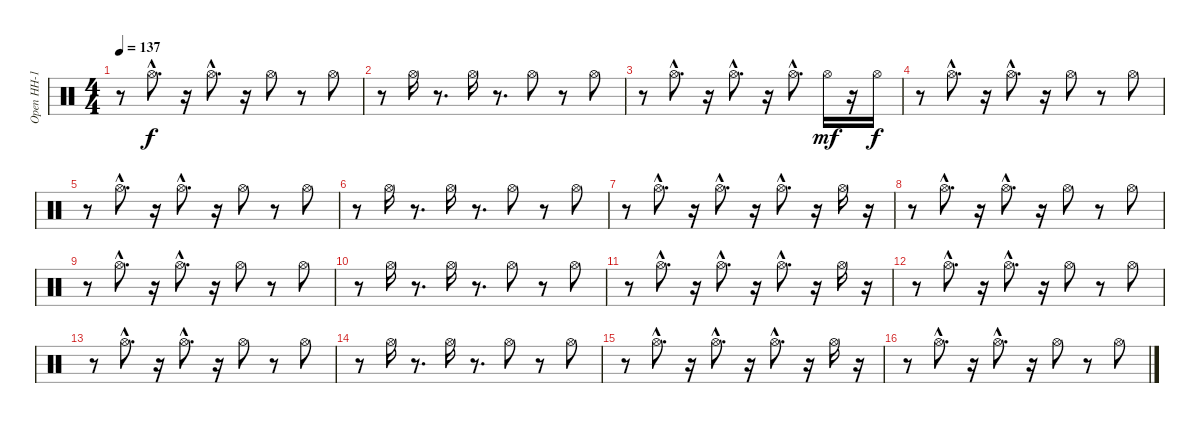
\track ("Open HH-1" "Open HH-1") {instrument percussion}
\staff {score}
\articulation defaults
\ts (4 4)
\tempo 137
\clef neutral
\ks c
r.8{dy f} "Hi-Hat (open)"{hac}.8{d} r.16 "Hi-Hat (open)"{hac}.8{d} r.16 "Hi-Hat (open)".8 r.8 "Hi-Hat (open)".8 |
r.8 "Hi-Hat (open)".16 r.8{d} "Hi-Hat (open)".16 r.8{d} "Hi-Hat (open)".8 r.8 "Hi-Hat (open)".8 |
r.8 "Hi-Hat (open)"{hac}.8{d} r.16 "Hi-Hat (open)"{hac}.8{d} r.16 "Hi-Hat (open)"{hac}.8{d} "Hi-Hat (open)".16{dy mf} r.16 "Hi-Hat (open)".16{dy f} |
r.8 "Hi-Hat (open)"{hac}.8{d} r.16 "Hi-Hat (open)"{hac}.8{d} r.16 "Hi-Hat (open)".8 r.8 "Hi-Hat (open)".8 |
r.8 "Hi-Hat (open)"{hac}.8{d} r.16 "Hi-Hat (open)"{hac}.8{d} r.16 "Hi-Hat (open)".8 r.8 "Hi-Hat (open)".8 |
r.8 "Hi-Hat (open)".16 r.8{d} "Hi-Hat (open)".16 r.8{d} "Hi-Hat (open)".8 r.8 "Hi-Hat (open)".8 |
r.8 "Hi-Hat (open)"{hac}.8{d} r.16 "Hi-Hat (open)"{hac}.8{d} r.16 "Hi-Hat (open)"{hac}.8{d} r.16 "Hi-Hat (open)".16 r.16 |
r.8 "Hi-Hat (open)"{hac}.8{d} r.16 "Hi-Hat (open)"{hac}.8{d} r.16 "Hi-Hat (open)".8 r.8 "Hi-Hat (open)".8 |
r.8 "Hi-Hat (open)"{hac}.8{d} r.16 "Hi-Hat (open)"{hac}.8{d} r.16 "Hi-Hat (open)".8 r.8 "Hi-Hat (open)".8 |
r.8 "Hi-Hat (open)".16 r.8{d} "Hi-Hat (open)".16 r.8{d} "Hi-Hat (open)".8 r.8 "Hi-Hat (open)".8 |
r.8 "Hi-Hat (open)"{hac}.8{d} r.16 "Hi-Hat (open)"{hac}.8{d} r.16 "Hi-Hat (open)"{hac}.8{d} r.16 "Hi-Hat (open)".16 r.16 |
r.8 "Hi-Hat (open)"{hac}.8{d} r.16 "Hi-Hat (open)"{hac}.8{d} r.16 "Hi-Hat (open)".8 r.8 "Hi-Hat (open)".8 |
r.8 "Hi-Hat (open)"{hac}.8{d} r.16 "Hi-Hat (open)"{hac}.8{d} r.16 "Hi-Hat (open)".8 r.8 "Hi-Hat (open)".8 |
r.8 "Hi-Hat (open)".16 r.8{d} "Hi-Hat (open)".16 r.8{d} "Hi-Hat (open)".8 r.8 "Hi-Hat (open)".8 |
r.8 "Hi-Hat (open)"{hac}.8{d} r.16 "Hi-Hat (open)"{hac}.8{d} r.16 "Hi-Hat (open)"{hac}.8{d} r.16 "Hi-Hat (open)".16 r.16 |
r.8 "Hi-Hat (open)"{hac}.8{d} r.16 "Hi-Hat (open)"{hac}.8{d} r.16 "Hi-Hat (open)".8 r.8 "Hi-Hat (open)".8
